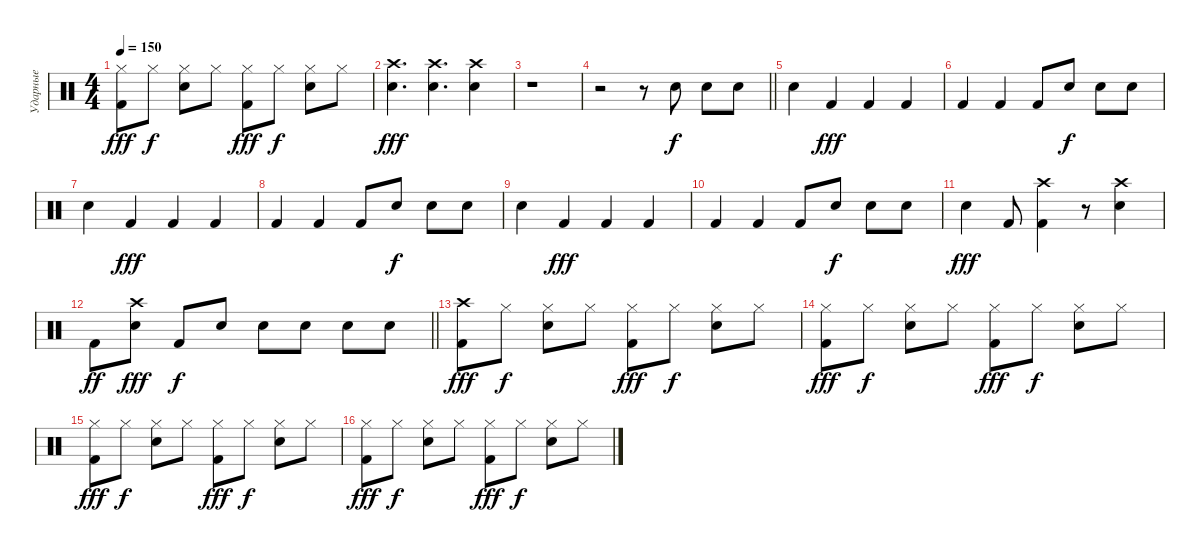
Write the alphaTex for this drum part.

\track ("Ударные" "Ударные") {instrument percussion}
\staff
\articulation defaults
\ts (4 4)
\tempo 150
\clef neutral
\ks c
("Kick (hit) 2" "Hi-Hat (closed)").8{dy fff} "Hi-Hat (closed)".8{dy f} ("Snare (hit) 2" "Hi-Hat (closed)").8 "Hi-Hat (closed)".8 ("Kick (hit) 2" "Hi-Hat (closed)").8{dy fff} "Hi-Hat (closed)".8{dy f} ("Snare (hit) 2" "Hi-Hat (closed)").8 "Hi-Hat (closed)".8 |
("Snare (hit) 2" "Crash high (hit)").4{d dy fff} ("Snare (hit) 2" "Crash high (hit)").4{d} ("Snare (hit) 2" "Crash high (hit)").4 |
r.1 |
\barLineRight lightlight
r.2 r.8 "Snare (hit) 2".8{dy f} "Snare (hit) 2".8 "Snare (hit) 2".8 |
"Snare (hit) 2".4 "Kick (hit) 2".4{dy fff} "Kick (hit) 2".4 "Kick (hit) 2".4 |
"Kick (hit) 2".4 "Kick (hit) 2".4 "Kick (hit) 2".8 "Snare (hit) 2".8{dy f} "Snare (hit) 2".8 "Snare (hit) 2".8 |
"Snare (hit) 2".4 "Kick (hit) 2".4{dy fff} "Kick (hit) 2".4 "Kick (hit) 2".4 |
"Kick (hit) 2".4 "Kick (hit) 2".4 "Kick (hit) 2".8 "Snare (hit) 2".8{dy f} "Snare (hit) 2".8 "Snare (hit) 2".8 |
"Snare (hit) 2".4 "Kick (hit) 2".4{dy fff} "Kick (hit) 2".4 "Kick (hit) 2".4 |
"Kick (hit) 2".4 "Kick (hit) 2".4 "Kick (hit) 2".8 "Snare (hit) 2".8{dy f} "Snare (hit) 2".8 "Snare (hit) 2".8 |
"Snare (hit) 2".4{dy fff} "Kick (hit) 2".8 ("Kick (hit) 2" "Crash high (hit)").4 r.8 ("Snare (hit) 2" "Crash high (hit)").4 |
\barLineRight lightlight "Kick (hit) 2".8{dy ff}
("Snare (hit) 2" "Crash high (hit)").8{dy fff} "Kick (hit) 2".8{dy f} "Snare (hit) 2".8 "Snare (hit) 2".8 "Snare (hit) 2".8 "Snare (hit) 2".8 "Snare (hit) 2".8 |
("Kick (hit) 2" "Crash high (hit)").8{dy fff} "Hi-Hat (closed)".8{dy f} ("Snare (hit) 2" "Hi-Hat (closed)").8 "Hi-Hat (closed)".8 ("Kick (hit) 2" "Hi-Hat (closed)").8{dy fff} "Hi-Hat (closed)".8{dy f} ("Snare (hit) 2" "Hi-Hat (closed)").8 "Hi-Hat (closed)".8 |
("Kick (hit) 2" "Hi-Hat (closed)").8{dy fff} "Hi-Hat (closed)".8{dy f} ("Snare (hit) 2" "Hi-Hat (closed)").8 "Hi-Hat (closed)".8 ("Kick (hit) 2" "Hi-Hat (closed)").8{dy fff} "Hi-Hat (closed)".8{dy f} ("Snare (hit) 2" "Hi-Hat (closed)").8 "Hi-Hat (closed)".8 |
("Kick (hit) 2" "Hi-Hat (closed)").8{dy fff} "Hi-Hat (closed)".8{dy f} ("Snare (hit) 2" "Hi-Hat (closed)").8 "Hi-Hat (closed)".8 ("Kick (hit) 2" "Hi-Hat (closed)").8{dy fff} "Hi-Hat (closed)".8{dy f} ("Snare (hit) 2" "Hi-Hat (closed)").8 "Hi-Hat (closed)".8 |
("Kick (hit) 2" "Hi-Hat (closed)").8{dy fff} "Hi-Hat (closed)".8{dy f} ("Snare (hit) 2" "Hi-Hat (closed)").8 "Hi-Hat (closed)".8 ("Kick (hit) 2" "Hi-Hat (closed)").8{dy fff} "Hi-Hat (closed)".8{dy f} ("Snare (hit) 2" "Hi-Hat (closed)").8 "Hi-Hat (closed)".8
